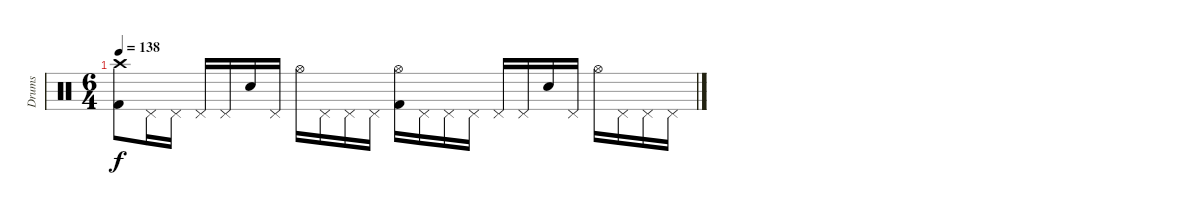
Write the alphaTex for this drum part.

\track ("Drums" "Drums") {instrument percussion}
\staff {score}
\articulation defaults
\ts (6 4)
\tempo 138
\clef neutral
\ks c
("Crash high (hit)" "Kick (hit) 2").8{dy f} "Pedal Hi-Hat (hit)".16 "Pedal Hi-Hat (hit)".16 "Pedal Hi-Hat (hit)".16 "Pedal Hi-Hat (hit)".16 "Electric Snare (hit)".16 "Pedal Hi-Hat (hit)".16 "Hi-Hat (open)".16 "Pedal Hi-Hat (hit)".16 "Pedal Hi-Hat (hit)".16 "Pedal Hi-Hat (hit)".16 ("Hi-Hat (open)" "Kick (hit) 2").16 "Pedal Hi-Hat (hit)".16 "Pedal Hi-Hat (hit)".16 "Pedal Hi-Hat (hit)".16 "Pedal Hi-Hat (hit)".16 "Pedal Hi-Hat (hit)".16 "Electric Snare (hit)".16 "Pedal Hi-Hat (hit)".16 "Hi-Hat (open)".16 "Pedal Hi-Hat (hit)".16 "Pedal Hi-Hat (hit)".16 "Pedal Hi-Hat (hit)".16
